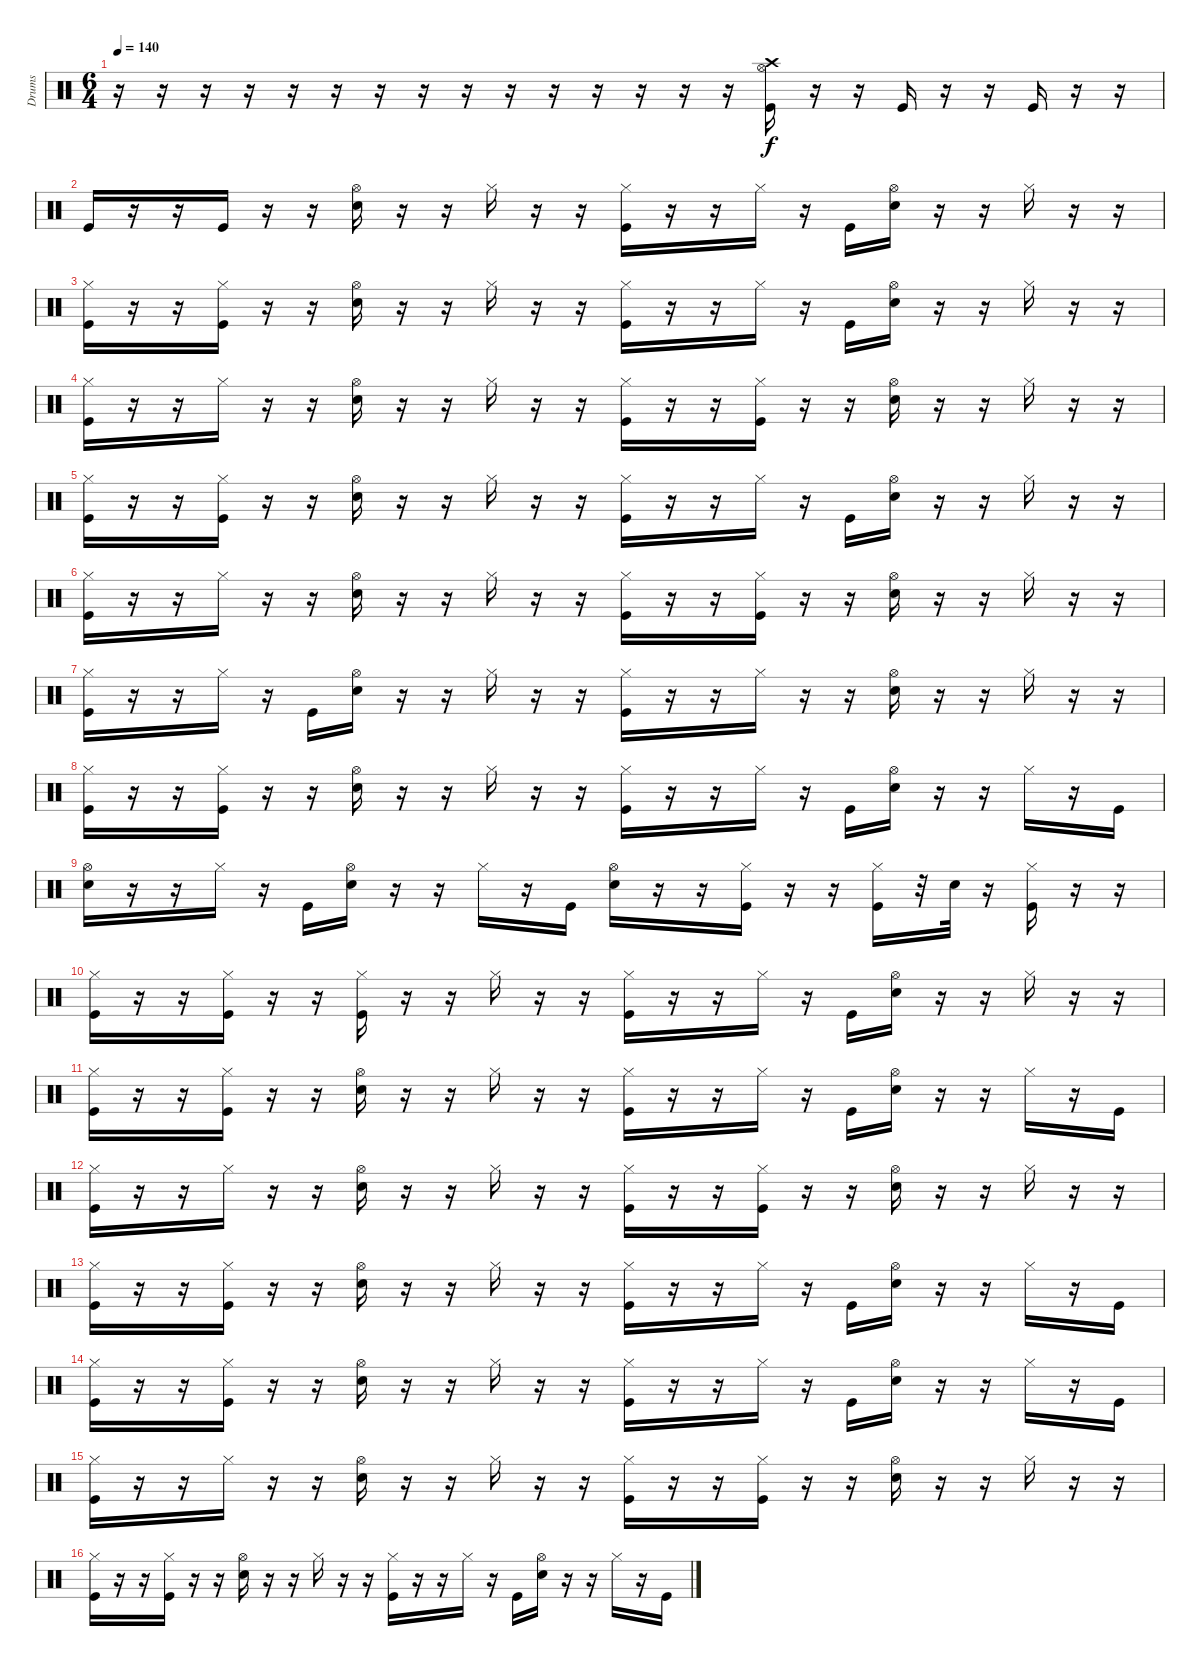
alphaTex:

\track ("Drums" "Drums") {instrument percussion}
\staff {score}
\articulation defaults
\ts (6 4)
\tempo 140
\clef neutral
\ks c
r.16{dy f} r.16 r.16 r.16 r.16 r.16 r.16 r.16 r.16 r.16 r.16 r.16 r.16 r.16 r.16 ("Crash high (hit)" "Hi-Hat (open)" "Kick (hit)").16 r.16 r.16 "Kick (hit)".16 r.16 r.16 "Kick (hit)".16 r.16 r.16 |
"Kick (hit)".16 r.16 r.16 "Kick (hit)".16 r.16 r.16 ("Hi-Hat (open)" "Snare (hit) 2").16 r.16 r.16 "Hi-Hat (closed)".16 r.16 r.16 ("Hi-Hat (closed)" "Kick (hit)").16 r.16 r.16 "Hi-Hat (closed)".16 r.16 "Kick (hit)".16 ("Hi-Hat (open)" "Snare (hit) 2").16 r.16 r.16 "Hi-Hat (closed)".16 r.16 r.16 |
("Hi-Hat (closed)" "Kick (hit)").16 r.16 r.16 ("Hi-Hat (closed)" "Kick (hit)").16 r.16 r.16 ("Hi-Hat (open)" "Snare (hit) 2").16 r.16 r.16 "Hi-Hat (closed)".16 r.16 r.16 ("Hi-Hat (closed)" "Kick (hit)").16 r.16 r.16 "Hi-Hat (closed)".16 r.16 "Kick (hit)".16 ("Hi-Hat (open)" "Snare (hit) 2").16 r.16 r.16 "Hi-Hat (closed)".16 r.16 r.16 |
("Hi-Hat (closed)" "Kick (hit)").16 r.16 r.16 "Hi-Hat (closed)".16 r.16 r.16 ("Hi-Hat (open)" "Snare (hit) 2").16 r.16 r.16 "Hi-Hat (closed)".16 r.16 r.16 ("Hi-Hat (closed)" "Kick (hit)").16 r.16 r.16 ("Hi-Hat (closed)" "Kick (hit)").16 r.16 r.16 ("Hi-Hat (open)" "Snare (hit) 2").16 r.16 r.16 "Hi-Hat (closed)".16 r.16 r.16 |
("Hi-Hat (closed)" "Kick (hit)").16 r.16 r.16 ("Hi-Hat (closed)" "Kick (hit)").16 r.16 r.16 ("Hi-Hat (open)" "Snare (hit) 2").16 r.16 r.16 "Hi-Hat (closed)".16 r.16 r.16 ("Hi-Hat (closed)" "Kick (hit)").16 r.16 r.16 "Hi-Hat (closed)".16 r.16 "Kick (hit)".16 ("Hi-Hat (open)" "Snare (hit) 2").16 r.16 r.16 "Hi-Hat (closed)".16 r.16 r.16 |
("Hi-Hat (closed)" "Kick (hit)").16 r.16 r.16 "Hi-Hat (closed)".16 r.16 r.16 ("Hi-Hat (open)" "Snare (hit) 2").16 r.16 r.16 "Hi-Hat (closed)".16 r.16 r.16 ("Hi-Hat (closed)" "Kick (hit)").16 r.16 r.16 ("Hi-Hat (closed)" "Kick (hit)").16 r.16 r.16 ("Hi-Hat (open)" "Snare (hit) 2").16 r.16 r.16 "Hi-Hat (closed)".16 r.16 r.16 |
("Hi-Hat (closed)" "Kick (hit)").16 r.16 r.16 "Hi-Hat (closed)".16 r.16 "Kick (hit)".16 ("Hi-Hat (open)" "Snare (hit) 2").16 r.16 r.16 "Hi-Hat (closed)".16 r.16 r.16 ("Hi-Hat (closed)" "Kick (hit)").16 r.16 r.16 "Hi-Hat (closed)".16 r.16 r.16 ("Hi-Hat (open)" "Snare (hit) 2").16 r.16 r.16 "Hi-Hat (closed)".16 r.16 r.16 |
("Hi-Hat (closed)" "Kick (hit)").16 r.16 r.16 ("Hi-Hat (closed)" "Kick (hit)").16 r.16 r.16 ("Hi-Hat (open)" "Snare (hit) 2").16 r.16 r.16 "Hi-Hat (closed)".16 r.16 r.16 ("Hi-Hat (closed)" "Kick (hit)").16 r.16 r.16 "Hi-Hat (closed)".16 r.16 "Kick (hit)".16 ("Hi-Hat (open)" "Snare (hit) 2").16 r.16 r.16 "Hi-Hat (closed)".16 r.16 "Kick (hit)".16 |
("Hi-Hat (open)" "Snare (hit) 2").16 r.16 r.16 "Hi-Hat (closed)".16 r.16 "Kick (hit)".16 ("Hi-Hat (open)" "Snare (hit) 2").16 r.16 r.16 "Hi-Hat (closed)".16 r.16 "Kick (hit)".16 ("Hi-Hat (open)" "Snare (hit) 2").16 r.16 r.16 ("Hi-Hat (closed)" "Kick (hit)").16 r.16 r.16 ("Hi-Hat (closed)" "Kick (hit)").16 r.32 "Snare (hit) 2".32 r.16 ("Hi-Hat (closed)" "Kick (hit)").16 r.16 r.16 |
("Hi-Hat (closed)" "Kick (hit)").16 r.16 r.16 ("Hi-Hat (closed)" "Kick (hit)").16 r.16 r.16 ("Hi-Hat (closed)" "Kick (hit)").16 r.16 r.16 "Hi-Hat (closed)".16 r.16 r.16 ("Hi-Hat (closed)" "Kick (hit)").16 r.16 r.16 "Hi-Hat (closed)".16 r.16 "Kick (hit)".16 ("Hi-Hat (open)" "Snare (hit) 2").16 r.16 r.16 "Hi-Hat (closed)".16 r.16 r.16 |
("Hi-Hat (closed)" "Kick (hit)").16 r.16 r.16 ("Hi-Hat (closed)" "Kick (hit)").16 r.16 r.16 ("Hi-Hat (open)" "Snare (hit) 2").16 r.16 r.16 "Hi-Hat (closed)".16 r.16 r.16 ("Hi-Hat (closed)" "Kick (hit)").16 r.16 r.16 "Hi-Hat (closed)".16 r.16 "Kick (hit)".16 ("Hi-Hat (open)" "Snare (hit) 2").16 r.16 r.16 "Hi-Hat (closed)".16 r.16 "Kick (hit)".16 |
("Hi-Hat (closed)" "Kick (hit)").16 r.16 r.16 "Hi-Hat (closed)".16 r.16 r.16 ("Hi-Hat (open)" "Snare (hit) 2").16 r.16 r.16 "Hi-Hat (closed)".16 r.16 r.16 ("Hi-Hat (closed)" "Kick (hit)").16 r.16 r.16 ("Hi-Hat (closed)" "Kick (hit)").16 r.16 r.16 ("Hi-Hat (open)" "Snare (hit) 2").16 r.16 r.16 "Hi-Hat (closed)".16 r.16 r.16 |
("Hi-Hat (closed)" "Kick (hit)").16 r.16 r.16 ("Hi-Hat (closed)" "Kick (hit)").16 r.16 r.16 ("Hi-Hat (open)" "Snare (hit) 2").16 r.16 r.16 "Hi-Hat (closed)".16 r.16 r.16 ("Hi-Hat (closed)" "Kick (hit)").16 r.16 r.16 "Hi-Hat (closed)".16 r.16 "Kick (hit)".16 ("Hi-Hat (open)" "Snare (hit) 2").16 r.16 r.16 "Hi-Hat (closed)".16 r.16 "Kick (hit)".16 |
("Hi-Hat (closed)" "Kick (hit)").16 r.16 r.16 ("Hi-Hat (closed)" "Kick (hit)").16 r.16 r.16 ("Hi-Hat (open)" "Snare (hit) 2").16 r.16 r.16 "Hi-Hat (closed)".16 r.16 r.16 ("Hi-Hat (closed)" "Kick (hit)").16 r.16 r.16 "Hi-Hat (closed)".16 r.16 "Kick (hit)".16 ("Hi-Hat (open)" "Snare (hit) 2").16 r.16 r.16 "Hi-Hat (closed)".16 r.16 "Kick (hit)".16 |
("Hi-Hat (closed)" "Kick (hit)").16 r.16 r.16 "Hi-Hat (closed)".16 r.16 r.16 ("Hi-Hat (open)" "Snare (hit) 2").16 r.16 r.16 "Hi-Hat (closed)".16 r.16 r.16 ("Hi-Hat (closed)" "Kick (hit)").16 r.16 r.16 ("Hi-Hat (closed)" "Kick (hit)").16 r.16 r.16 ("Hi-Hat (open)" "Snare (hit) 2").16 r.16 r.16 "Hi-Hat (closed)".16 r.16 r.16 |
("Hi-Hat (closed)" "Kick (hit)").16 r.16 r.16 ("Hi-Hat (closed)" "Kick (hit)").16 r.16 r.16 ("Hi-Hat (open)" "Snare (hit) 2").16 r.16 r.16 "Hi-Hat (closed)".16 r.16 r.16 ("Hi-Hat (closed)" "Kick (hit)").16 r.16 r.16 "Hi-Hat (closed)".16 r.16 "Kick (hit)".16 ("Hi-Hat (open)" "Snare (hit) 2").16 r.16 r.16 "Hi-Hat (closed)".16 r.16 "Kick (hit)".16
